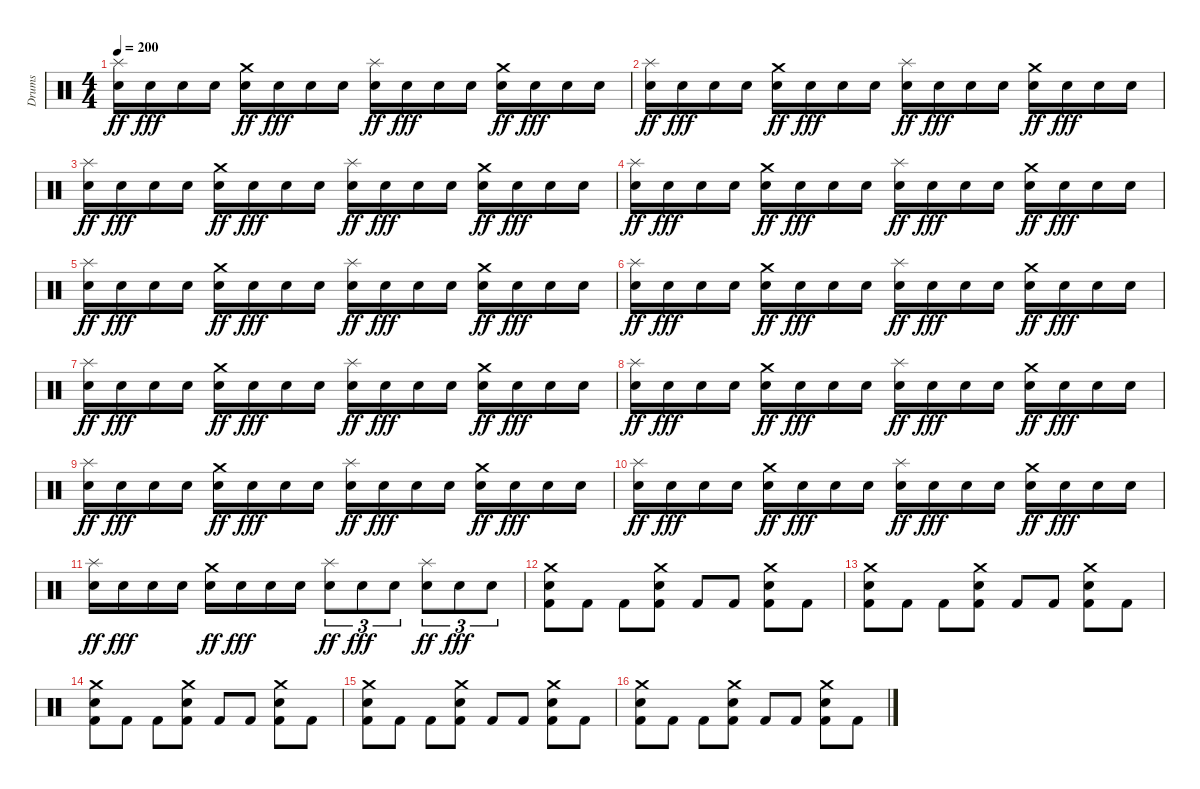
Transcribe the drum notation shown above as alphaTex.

\track ("Drums" "Drums") {instrument percussion}
\staff {score}
\articulation defaults
\ts (4 4)
\tempo 200
\clef neutral
\ks c
("Snare (hit) 2" "Splash (hit)").16{dy ff} "Snare (hit) 2".16{dy fff} "Snare (hit) 2".16 "Snare (hit) 2".16 ("Snare (hit) 2" "Crash medium (hit)").16{dy ff} "Snare (hit) 2".16{dy fff} "Snare (hit) 2".16 "Snare (hit) 2".16 ("Snare (hit) 2" "Splash (hit)").16{dy ff} "Snare (hit) 2".16{dy fff} "Snare (hit) 2".16 "Snare (hit) 2".16 ("Snare (hit) 2" "Crash medium (hit)").16{dy ff} "Snare (hit) 2".16{dy fff} "Snare (hit) 2".16 "Snare (hit) 2".16 |
("Snare (hit) 2" "Splash (hit)").16{dy ff} "Snare (hit) 2".16{dy fff} "Snare (hit) 2".16 "Snare (hit) 2".16 ("Snare (hit) 2" "Crash medium (hit)").16{dy ff} "Snare (hit) 2".16{dy fff} "Snare (hit) 2".16 "Snare (hit) 2".16 ("Snare (hit) 2" "Splash (hit)").16{dy ff} "Snare (hit) 2".16{dy fff} "Snare (hit) 2".16 "Snare (hit) 2".16 ("Snare (hit) 2" "Crash medium (hit)").16{dy ff} "Snare (hit) 2".16{dy fff} "Snare (hit) 2".16 "Snare (hit) 2".16 |
("Snare (hit) 2" "Splash (hit)").16{dy ff} "Snare (hit) 2".16{dy fff} "Snare (hit) 2".16 "Snare (hit) 2".16 ("Snare (hit) 2" "Crash medium (hit)").16{dy ff} "Snare (hit) 2".16{dy fff} "Snare (hit) 2".16 "Snare (hit) 2".16 ("Snare (hit) 2" "Splash (hit)").16{dy ff} "Snare (hit) 2".16{dy fff} "Snare (hit) 2".16 "Snare (hit) 2".16 ("Snare (hit) 2" "Crash medium (hit)").16{dy ff} "Snare (hit) 2".16{dy fff} "Snare (hit) 2".16 "Snare (hit) 2".16 |
("Snare (hit) 2" "Splash (hit)").16{dy ff} "Snare (hit) 2".16{dy fff} "Snare (hit) 2".16 "Snare (hit) 2".16 ("Snare (hit) 2" "Crash medium (hit)").16{dy ff} "Snare (hit) 2".16{dy fff} "Snare (hit) 2".16 "Snare (hit) 2".16 ("Snare (hit) 2" "Splash (hit)").16{dy ff} "Snare (hit) 2".16{dy fff} "Snare (hit) 2".16 "Snare (hit) 2".16 ("Snare (hit) 2" "Crash medium (hit)").16{dy ff} "Snare (hit) 2".16{dy fff} "Snare (hit) 2".16 "Snare (hit) 2".16 |
("Snare (hit) 2" "Splash (hit)").16{dy ff} "Snare (hit) 2".16{dy fff} "Snare (hit) 2".16 "Snare (hit) 2".16 ("Snare (hit) 2" "Crash medium (hit)").16{dy ff} "Snare (hit) 2".16{dy fff} "Snare (hit) 2".16 "Snare (hit) 2".16 ("Snare (hit) 2" "Splash (hit)").16{dy ff} "Snare (hit) 2".16{dy fff} "Snare (hit) 2".16 "Snare (hit) 2".16 ("Snare (hit) 2" "Crash medium (hit)").16{dy ff} "Snare (hit) 2".16{dy fff} "Snare (hit) 2".16 "Snare (hit) 2".16 |
("Snare (hit) 2" "Splash (hit)").16{dy ff} "Snare (hit) 2".16{dy fff} "Snare (hit) 2".16 "Snare (hit) 2".16 ("Snare (hit) 2" "Crash medium (hit)").16{dy ff} "Snare (hit) 2".16{dy fff} "Snare (hit) 2".16 "Snare (hit) 2".16 ("Snare (hit) 2" "Splash (hit)").16{dy ff} "Snare (hit) 2".16{dy fff} "Snare (hit) 2".16 "Snare (hit) 2".16 ("Snare (hit) 2" "Crash medium (hit)").16{dy ff} "Snare (hit) 2".16{dy fff} "Snare (hit) 2".16 "Snare (hit) 2".16 |
("Snare (hit) 2" "Splash (hit)").16{dy ff} "Snare (hit) 2".16{dy fff} "Snare (hit) 2".16 "Snare (hit) 2".16 ("Snare (hit) 2" "Crash medium (hit)").16{dy ff} "Snare (hit) 2".16{dy fff} "Snare (hit) 2".16 "Snare (hit) 2".16 ("Snare (hit) 2" "Splash (hit)").16{dy ff} "Snare (hit) 2".16{dy fff} "Snare (hit) 2".16 "Snare (hit) 2".16 ("Snare (hit) 2" "Crash medium (hit)").16{dy ff} "Snare (hit) 2".16{dy fff} "Snare (hit) 2".16 "Snare (hit) 2".16 |
("Snare (hit) 2" "Splash (hit)").16{dy ff} "Snare (hit) 2".16{dy fff} "Snare (hit) 2".16 "Snare (hit) 2".16 ("Snare (hit) 2" "Crash medium (hit)").16{dy ff} "Snare (hit) 2".16{dy fff} "Snare (hit) 2".16 "Snare (hit) 2".16 ("Snare (hit) 2" "Splash (hit)").16{dy ff} "Snare (hit) 2".16{dy fff} "Snare (hit) 2".16 "Snare (hit) 2".16 ("Snare (hit) 2" "Crash medium (hit)").16{dy ff} "Snare (hit) 2".16{dy fff} "Snare (hit) 2".16 "Snare (hit) 2".16 |
("Snare (hit) 2" "Splash (hit)").16{dy ff} "Snare (hit) 2".16{dy fff} "Snare (hit) 2".16 "Snare (hit) 2".16 ("Snare (hit) 2" "Crash medium (hit)").16{dy ff} "Snare (hit) 2".16{dy fff} "Snare (hit) 2".16 "Snare (hit) 2".16 ("Snare (hit) 2" "Splash (hit)").16{dy ff} "Snare (hit) 2".16{dy fff} "Snare (hit) 2".16 "Snare (hit) 2".16 ("Snare (hit) 2" "Crash medium (hit)").16{dy ff} "Snare (hit) 2".16{dy fff} "Snare (hit) 2".16 "Snare (hit) 2".16 |
("Snare (hit) 2" "Splash (hit)").16{dy ff} "Snare (hit) 2".16{dy fff} "Snare (hit) 2".16 "Snare (hit) 2".16 ("Snare (hit) 2" "Crash medium (hit)").16{dy ff} "Snare (hit) 2".16{dy fff} "Snare (hit) 2".16 "Snare (hit) 2".16 ("Snare (hit) 2" "Splash (hit)").16{dy ff} "Snare (hit) 2".16{dy fff} "Snare (hit) 2".16 "Snare (hit) 2".16 ("Snare (hit) 2" "Crash medium (hit)").16{dy ff} "Snare (hit) 2".16{dy fff} "Snare (hit) 2".16 "Snare (hit) 2".16 |
("Snare (hit) 2" "Splash (hit)").16{dy ff} "Snare (hit) 2".16{dy fff} "Snare (hit) 2".16 "Snare (hit) 2".16 ("Snare (hit) 2" "Crash medium (hit)").16{dy ff} "Snare (hit) 2".16{dy fff} "Snare (hit) 2".16 "Snare (hit) 2".16 ("Electric Snare (hit)" "Splash (hit)").8{tu (3 2) dy ff} "Electric Snare (hit)".8{tu (3 2) dy fff} "Electric Snare (hit)".8{tu (3 2)} ("Electric Snare (hit)" "Splash (hit)").8{tu (3 2) dy ff} "Electric Snare (hit)".8{tu (3 2) dy fff} "Electric Snare (hit)".8{tu (3 2)} |
("Crash medium (hit)" "Electric Snare (hit)" "Kick (hit) 2").8 "Kick (hit) 2".8 "Kick (hit) 2".8 ("Crash medium (hit)" "Electric Snare (hit)" "Kick (hit) 2").8 "Kick (hit) 2".8 "Kick (hit) 2".8 ("Crash medium (hit)" "Electric Snare (hit)" "Kick (hit) 2").8 "Kick (hit) 2".8 |
("Crash medium (hit)" "Electric Snare (hit)" "Kick (hit) 2").8 "Kick (hit) 2".8 "Kick (hit) 2".8 ("Crash medium (hit)" "Electric Snare (hit)" "Kick (hit) 2").8 "Kick (hit) 2".8 "Kick (hit) 2".8 ("Crash medium (hit)" "Electric Snare (hit)" "Kick (hit) 2").8 "Kick (hit) 2".8 |
("Crash medium (hit)" "Electric Snare (hit)" "Kick (hit) 2").8 "Kick (hit) 2".8 "Kick (hit) 2".8 ("Crash medium (hit)" "Electric Snare (hit)" "Kick (hit) 2").8 "Kick (hit) 2".8 "Kick (hit) 2".8 ("Crash medium (hit)" "Electric Snare (hit)" "Kick (hit) 2").8 "Kick (hit) 2".8 |
("Crash medium (hit)" "Electric Snare (hit)" "Kick (hit) 2").8 "Kick (hit) 2".8 "Kick (hit) 2".8 ("Crash medium (hit)" "Electric Snare (hit)" "Kick (hit) 2").8 "Kick (hit) 2".8 "Kick (hit) 2".8 ("Crash medium (hit)" "Electric Snare (hit)" "Kick (hit) 2").8 "Kick (hit) 2".8 |
("Crash medium (hit)" "Electric Snare (hit)" "Kick (hit) 2").8 "Kick (hit) 2".8 "Kick (hit) 2".8 ("Crash medium (hit)" "Electric Snare (hit)" "Kick (hit) 2").8 "Kick (hit) 2".8 "Kick (hit) 2".8 ("Crash medium (hit)" "Electric Snare (hit)" "Kick (hit) 2").8 "Kick (hit) 2".8
